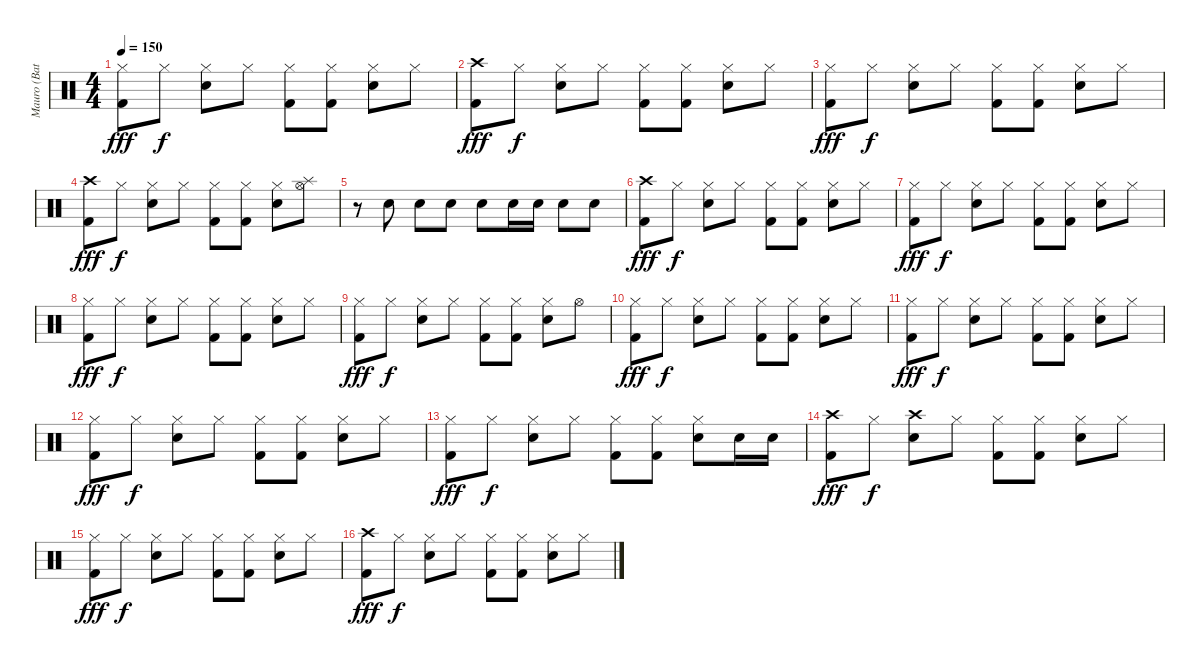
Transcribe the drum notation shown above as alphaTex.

\track ("Mauro (Bateria)" "Mauro (Bat") {instrument percussion}
\staff {score}
\articulation defaults
\ts (4 4)
\tempo 150
\clef neutral
\ks c
("Hi-Hat (closed)" "Kick (hit) 2").8{dy fff} "Hi-Hat (closed)".8{dy f} ("Hi-Hat (closed)" "Snare (hit) 2").8 "Hi-Hat (closed)".8 ("Hi-Hat (closed)" "Kick (hit) 2").8 ("Hi-Hat (closed)" "Kick (hit) 2").8 ("Hi-Hat (closed)" "Snare (hit) 2").8 "Hi-Hat (closed)".8 |
("Crash high (hit)" "Kick (hit) 2").8{dy fff} "Hi-Hat (closed)".8{dy f} ("Hi-Hat (closed)" "Snare (hit) 2").8 "Hi-Hat (closed)".8 ("Hi-Hat (closed)" "Kick (hit) 2").8 ("Hi-Hat (closed)" "Kick (hit) 2").8 ("Hi-Hat (closed)" "Snare (hit) 2").8 "Hi-Hat (closed)".8 |
("Hi-Hat (closed)" "Kick (hit) 2").8{dy fff} "Hi-Hat (closed)".8{dy f} ("Hi-Hat (closed)" "Snare (hit) 2").8 "Hi-Hat (closed)".8 ("Hi-Hat (closed)" "Kick (hit) 2").8 ("Hi-Hat (closed)" "Kick (hit) 2").8 ("Hi-Hat (closed)" "Snare (hit) 2").8 "Hi-Hat (closed)".8 |
("Crash high (hit)" "Kick (hit) 2").8{dy fff} "Hi-Hat (closed)".8{dy f} ("Hi-Hat (closed)" "Snare (hit) 2").8 "Hi-Hat (closed)".8 ("Hi-Hat (closed)" "Kick (hit) 2").8 ("Hi-Hat (closed)" "Kick (hit) 2").8 ("Hi-Hat (closed)" "Snare (hit) 2").8 ("Hi-Hat (open)" "Splash (hit)").8 |
r.8 "Snare (hit) 2".8 "Snare (hit) 2".8 "Snare (hit) 2".8 "Snare (hit) 2".8 "Snare (hit) 2".16 "Snare (hit) 2".16 "Snare (hit) 2".8 "Snare (hit) 2".8 |
("Crash high (hit)" "Kick (hit) 2").8{dy fff} "Hi-Hat (closed)".8{dy f} ("Hi-Hat (closed)" "Snare (hit) 2").8 "Hi-Hat (closed)".8 ("Hi-Hat (closed)" "Kick (hit) 2").8 ("Hi-Hat (closed)" "Kick (hit) 2").8 ("Hi-Hat (closed)" "Snare (hit) 2").8 "Hi-Hat (closed)".8 |
("Hi-Hat (closed)" "Kick (hit) 2").8{dy fff} "Hi-Hat (closed)".8{dy f} ("Hi-Hat (closed)" "Snare (hit) 2").8 "Hi-Hat (closed)".8 ("Hi-Hat (closed)" "Kick (hit) 2").8 ("Hi-Hat (closed)" "Kick (hit) 2").8 ("Hi-Hat (closed)" "Snare (hit) 2").8 "Hi-Hat (closed)".8 |
("Hi-Hat (closed)" "Kick (hit) 2").8{dy fff} "Hi-Hat (closed)".8{dy f} ("Hi-Hat (closed)" "Snare (hit) 2").8 "Hi-Hat (closed)".8 ("Hi-Hat (closed)" "Kick (hit) 2").8 ("Hi-Hat (closed)" "Kick (hit) 2").8 ("Hi-Hat (closed)" "Snare (hit) 2").8 "Hi-Hat (closed)".8 |
("Hi-Hat (closed)" "Kick (hit) 2").8{dy fff} "Hi-Hat (closed)".8{dy f} ("Hi-Hat (closed)" "Snare (hit) 2").8 "Hi-Hat (closed)".8 ("Hi-Hat (closed)" "Kick (hit) 2").8 ("Hi-Hat (closed)" "Kick (hit) 2").8 ("Hi-Hat (closed)" "Snare (hit) 2").8 "Hi-Hat (open)".8 |
("Hi-Hat (closed)" "Kick (hit) 2").8{dy fff} "Hi-Hat (closed)".8{dy f} ("Hi-Hat (closed)" "Snare (hit) 2").8 "Hi-Hat (closed)".8 ("Hi-Hat (closed)" "Kick (hit) 2").8 ("Hi-Hat (closed)" "Kick (hit) 2").8 ("Hi-Hat (closed)" "Snare (hit) 2").8 "Hi-Hat (closed)".8 |
("Hi-Hat (closed)" "Kick (hit) 2").8{dy fff} "Hi-Hat (closed)".8{dy f} ("Hi-Hat (closed)" "Snare (hit) 2").8 "Hi-Hat (closed)".8 ("Hi-Hat (closed)" "Kick (hit) 2").8 ("Hi-Hat (closed)" "Kick (hit) 2").8 ("Hi-Hat (closed)" "Snare (hit) 2").8 "Hi-Hat (closed)".8 |
("Hi-Hat (closed)" "Kick (hit) 2").8{dy fff} "Hi-Hat (closed)".8{dy f} ("Hi-Hat (closed)" "Snare (hit) 2").8 "Hi-Hat (closed)".8 ("Hi-Hat (closed)" "Kick (hit) 2").8 ("Hi-Hat (closed)" "Kick (hit) 2").8 ("Hi-Hat (closed)" "Snare (hit) 2").8 "Hi-Hat (closed)".8 |
("Hi-Hat (closed)" "Kick (hit) 2").8{dy fff} "Hi-Hat (closed)".8{dy f} ("Hi-Hat (closed)" "Snare (hit) 2").8 "Hi-Hat (closed)".8 ("Hi-Hat (closed)" "Kick (hit) 2").8 ("Hi-Hat (closed)" "Kick (hit) 2").8 ("Hi-Hat (closed)" "Snare (hit) 2").8 "Snare (hit) 2".16 "Snare (hit) 2".16 |
("Crash high (hit)" "Kick (hit) 2").8{dy fff} "Hi-Hat (closed)".8{dy f} ("Crash high (hit)" "Snare (hit) 2").8 "Hi-Hat (closed)".8 ("Hi-Hat (closed)" "Kick (hit) 2").8 ("Hi-Hat (closed)" "Kick (hit) 2").8 ("Hi-Hat (closed)" "Snare (hit) 2").8 "Hi-Hat (closed)".8 |
("Hi-Hat (closed)" "Kick (hit) 2").8{dy fff} "Hi-Hat (closed)".8{dy f} ("Hi-Hat (closed)" "Snare (hit) 2").8 "Hi-Hat (closed)".8 ("Hi-Hat (closed)" "Kick (hit) 2").8 ("Hi-Hat (closed)" "Kick (hit) 2").8 ("Hi-Hat (closed)" "Snare (hit) 2").8 "Hi-Hat (closed)".8 |
("Crash high (hit)" "Kick (hit) 2").8{dy fff} "Hi-Hat (closed)".8{dy f} ("Hi-Hat (closed)" "Snare (hit) 2").8 "Hi-Hat (closed)".8 ("Hi-Hat (closed)" "Kick (hit) 2").8 ("Hi-Hat (closed)" "Kick (hit) 2").8 ("Hi-Hat (closed)" "Snare (hit) 2").8 "Hi-Hat (closed)".8
